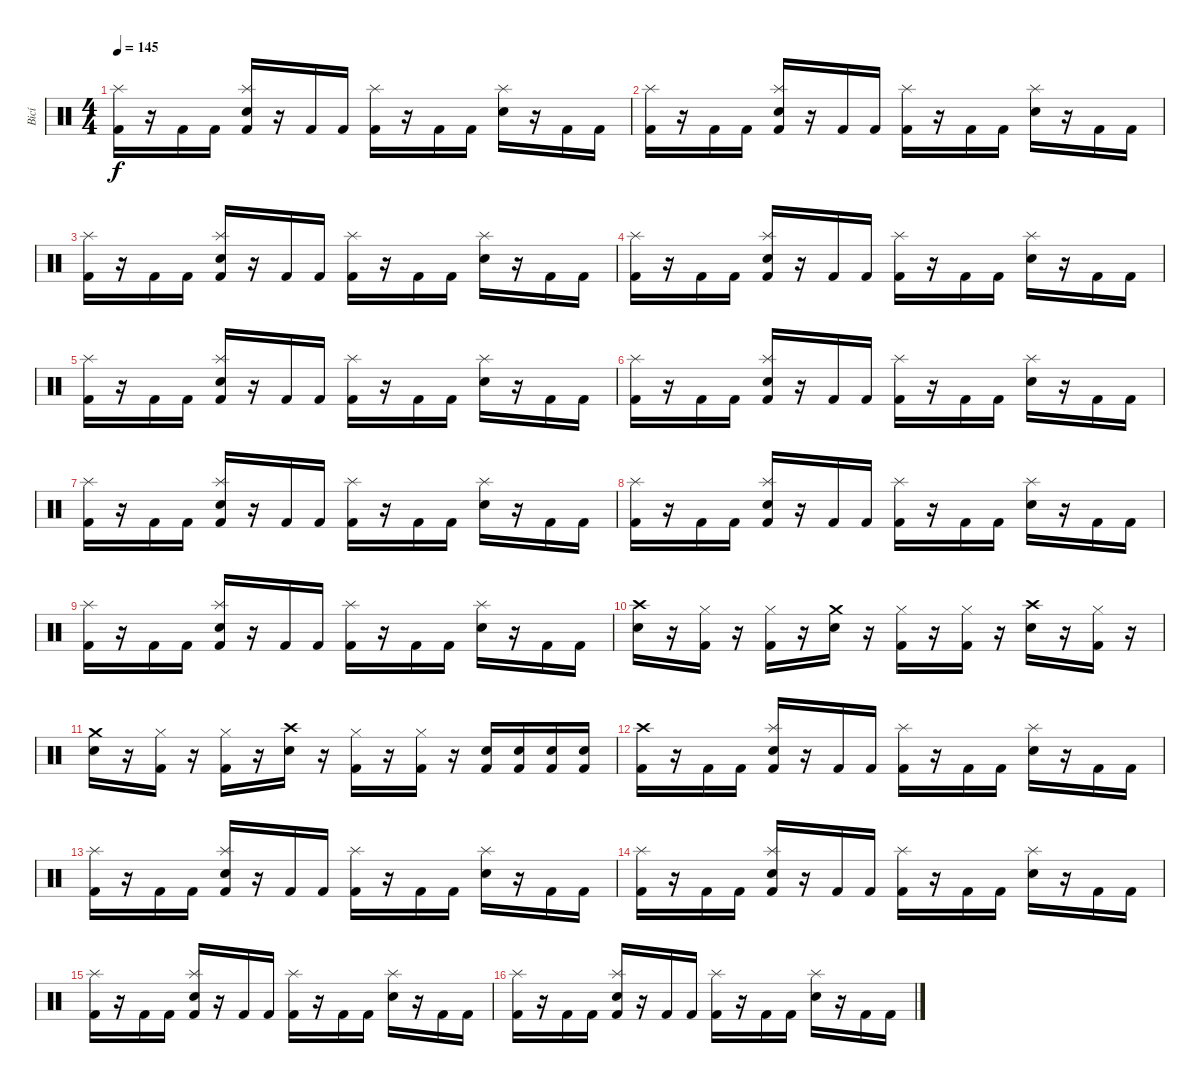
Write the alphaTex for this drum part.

\track ("Bicí" "Bicí") {instrument percussion}
\staff {score}
\articulation defaults
\ts (4 4)
\tempo 145
\clef neutral
\ks c
("Kick (hit) 2" "Splash (hit)").16{dy f} r.16 "Kick (hit) 2".16 "Kick (hit) 2".16 ("Kick (hit) 2" "Electric Snare (hit)" "Splash (hit)").16 r.16 "Kick (hit) 2".16 "Kick (hit) 2".16 ("Kick (hit) 2" "Splash (hit)").16 r.16 "Kick (hit) 2".16 "Kick (hit) 2".16 ("Electric Snare (hit)" "Splash (hit)").16 r.16 "Kick (hit) 2".16 "Kick (hit) 2".16 |
("Kick (hit) 2" "Splash (hit)").16 r.16 "Kick (hit) 2".16 "Kick (hit) 2".16 ("Kick (hit) 2" "Electric Snare (hit)" "Splash (hit)").16 r.16 "Kick (hit) 2".16 "Kick (hit) 2".16 ("Kick (hit) 2" "Splash (hit)").16 r.16 "Kick (hit) 2".16 "Kick (hit) 2".16 ("Electric Snare (hit)" "Splash (hit)").16 r.16 "Kick (hit) 2".16 "Kick (hit) 2".16 |
("Kick (hit) 2" "Splash (hit)").16 r.16 "Kick (hit) 2".16 "Kick (hit) 2".16 ("Kick (hit) 2" "Electric Snare (hit)" "Splash (hit)").16 r.16 "Kick (hit) 2".16 "Kick (hit) 2".16 ("Kick (hit) 2" "Splash (hit)").16 r.16 "Kick (hit) 2".16 "Kick (hit) 2".16 ("Electric Snare (hit)" "Splash (hit)").16 r.16 "Kick (hit) 2".16 "Kick (hit) 2".16 |
("Kick (hit) 2" "Splash (hit)").16 r.16 "Kick (hit) 2".16 "Kick (hit) 2".16 ("Kick (hit) 2" "Electric Snare (hit)" "Splash (hit)").16 r.16 "Kick (hit) 2".16 "Kick (hit) 2".16 ("Kick (hit) 2" "Splash (hit)").16 r.16 "Kick (hit) 2".16 "Kick (hit) 2".16 ("Electric Snare (hit)" "Splash (hit)").16 r.16 "Kick (hit) 2".16 "Kick (hit) 2".16 |
("Kick (hit) 2" "Splash (hit)").16 r.16 "Kick (hit) 2".16 "Kick (hit) 2".16 ("Kick (hit) 2" "Electric Snare (hit)" "Splash (hit)").16 r.16 "Kick (hit) 2".16 "Kick (hit) 2".16 ("Kick (hit) 2" "Splash (hit)").16 r.16 "Kick (hit) 2".16 "Kick (hit) 2".16 ("Electric Snare (hit)" "Splash (hit)").16 r.16 "Kick (hit) 2".16 "Kick (hit) 2".16 |
("Kick (hit) 2" "Splash (hit)").16 r.16 "Kick (hit) 2".16 "Kick (hit) 2".16 ("Kick (hit) 2" "Electric Snare (hit)" "Splash (hit)").16 r.16 "Kick (hit) 2".16 "Kick (hit) 2".16 ("Kick (hit) 2" "Splash (hit)").16 r.16 "Kick (hit) 2".16 "Kick (hit) 2".16 ("Electric Snare (hit)" "Splash (hit)").16 r.16 "Kick (hit) 2".16 "Kick (hit) 2".16 |
("Kick (hit) 2" "Splash (hit)").16 r.16 "Kick (hit) 2".16 "Kick (hit) 2".16 ("Kick (hit) 2" "Electric Snare (hit)" "Splash (hit)").16 r.16 "Kick (hit) 2".16 "Kick (hit) 2".16 ("Kick (hit) 2" "Splash (hit)").16 r.16 "Kick (hit) 2".16 "Kick (hit) 2".16 ("Electric Snare (hit)" "Splash (hit)").16 r.16 "Kick (hit) 2".16 "Kick (hit) 2".16 |
("Kick (hit) 2" "Splash (hit)").16 r.16 "Kick (hit) 2".16 "Kick (hit) 2".16 ("Kick (hit) 2" "Electric Snare (hit)" "Splash (hit)").16 r.16 "Kick (hit) 2".16 "Kick (hit) 2".16 ("Kick (hit) 2" "Splash (hit)").16 r.16 "Kick (hit) 2".16 "Kick (hit) 2".16 ("Electric Snare (hit)" "Splash (hit)").16 r.16 "Kick (hit) 2".16 "Kick (hit) 2".16 |
("Kick (hit) 2" "Splash (hit)").16 r.16 "Kick (hit) 2".16 "Kick (hit) 2".16 ("Kick (hit) 2" "Electric Snare (hit)" "Splash (hit)").16 r.16 "Kick (hit) 2".16 "Kick (hit) 2".16 ("Kick (hit) 2" "Splash (hit)").16 r.16 "Kick (hit) 2".16 "Kick (hit) 2".16 ("Electric Snare (hit)" "Splash (hit)").16 r.16 "Kick (hit) 2".16 "Kick (hit) 2".16 |
("Electric Snare (hit)" "Crash high (hit)").16 r.16 ("Hi-Hat (closed)" "Kick (hit) 2").16 r.16 ("Hi-Hat (closed)" "Kick (hit) 2").16 r.16 ("Electric Snare (hit)" "Crash medium (hit)").16 r.16 ("Hi-Hat (closed)" "Kick (hit) 2").16 r.16 ("Hi-Hat (closed)" "Kick (hit) 2").16 r.16 ("Electric Snare (hit)" "Crash high (hit)").16 r.16 ("Hi-Hat (closed)" "Kick (hit) 2").16 r.16 |
("Electric Snare (hit)" "Crash medium (hit)").16 r.16 ("Hi-Hat (closed)" "Kick (hit) 2").16 r.16 ("Hi-Hat (closed)" "Kick (hit) 2").16 r.16 ("Electric Snare (hit)" "Crash high (hit)").16 r.16 ("Hi-Hat (closed)" "Kick (hit) 2").16 r.16 ("Hi-Hat (closed)" "Kick (hit) 2").16 r.16 ("Electric Snare (hit)" "Kick (hit) 2").16 ("Electric Snare (hit)" "Kick (hit) 2").16 ("Electric Snare (hit)" "Kick (hit) 2").16 ("Electric Snare (hit)" "Kick (hit) 2").16 |
("Kick (hit) 2" "Crash high (hit)").16 r.16 "Kick (hit) 2".16 "Kick (hit) 2".16 ("Kick (hit) 2" "Electric Snare (hit)" "Splash (hit)").16 r.16 "Kick (hit) 2".16 "Kick (hit) 2".16 ("Kick (hit) 2" "Splash (hit)").16 r.16 "Kick (hit) 2".16 "Kick (hit) 2".16 ("Electric Snare (hit)" "Splash (hit)").16 r.16 "Kick (hit) 2".16 "Kick (hit) 2".16 |
("Kick (hit) 2" "Splash (hit)").16 r.16 "Kick (hit) 2".16 "Kick (hit) 2".16 ("Kick (hit) 2" "Electric Snare (hit)" "Splash (hit)").16 r.16 "Kick (hit) 2".16 "Kick (hit) 2".16 ("Kick (hit) 2" "Splash (hit)").16 r.16 "Kick (hit) 2".16 "Kick (hit) 2".16 ("Electric Snare (hit)" "Splash (hit)").16 r.16 "Kick (hit) 2".16 "Kick (hit) 2".16 |
("Kick (hit) 2" "Splash (hit)").16 r.16 "Kick (hit) 2".16 "Kick (hit) 2".16 ("Kick (hit) 2" "Electric Snare (hit)" "Splash (hit)").16 r.16 "Kick (hit) 2".16 "Kick (hit) 2".16 ("Kick (hit) 2" "Splash (hit)").16 r.16 "Kick (hit) 2".16 "Kick (hit) 2".16 ("Electric Snare (hit)" "Splash (hit)").16 r.16 "Kick (hit) 2".16 "Kick (hit) 2".16 |
("Kick (hit) 2" "Splash (hit)").16 r.16 "Kick (hit) 2".16 "Kick (hit) 2".16 ("Kick (hit) 2" "Electric Snare (hit)" "Splash (hit)").16 r.16 "Kick (hit) 2".16 "Kick (hit) 2".16 ("Kick (hit) 2" "Splash (hit)").16 r.16 "Kick (hit) 2".16 "Kick (hit) 2".16 ("Electric Snare (hit)" "Splash (hit)").16 r.16 "Kick (hit) 2".16 "Kick (hit) 2".16 |
("Kick (hit) 2" "Splash (hit)").16 r.16 "Kick (hit) 2".16 "Kick (hit) 2".16 ("Kick (hit) 2" "Electric Snare (hit)" "Splash (hit)").16 r.16 "Kick (hit) 2".16 "Kick (hit) 2".16 ("Kick (hit) 2" "Splash (hit)").16 r.16 "Kick (hit) 2".16 "Kick (hit) 2".16 ("Electric Snare (hit)" "Splash (hit)").16 r.16 "Kick (hit) 2".16 "Kick (hit) 2".16
